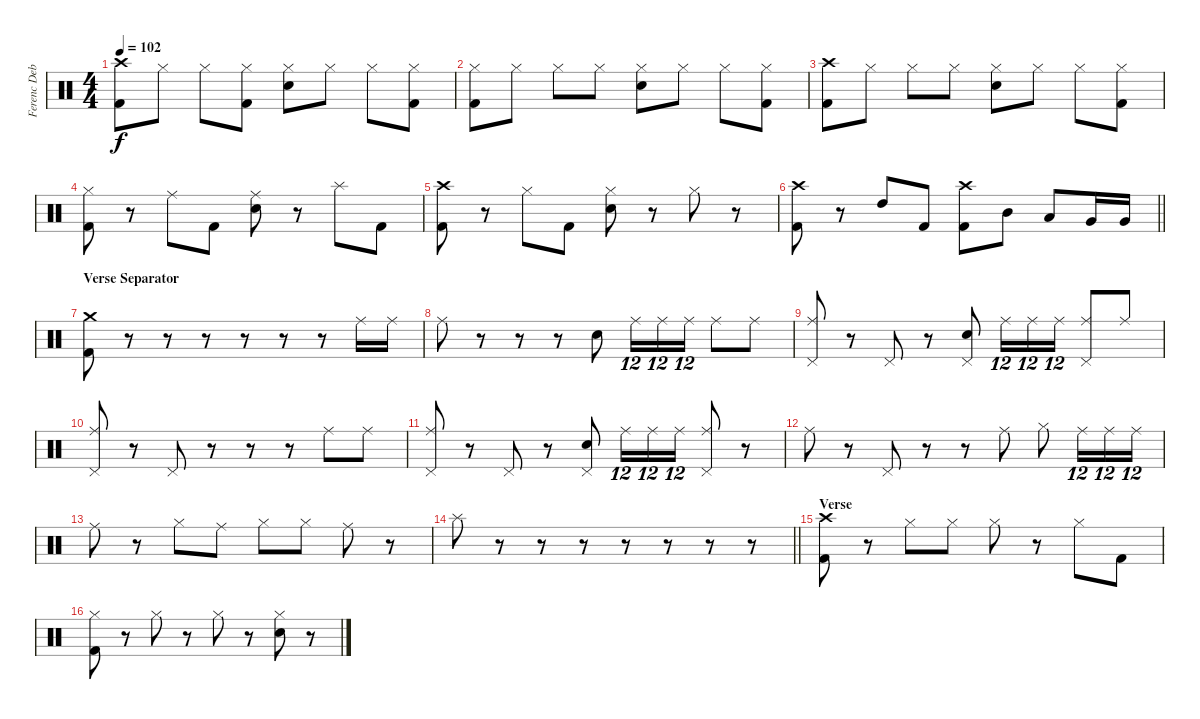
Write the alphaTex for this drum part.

\track ("Ferenc Debreczeni - drums" "Ferenc Deb") {instrument percussion}
\staff {score}
\articulation defaults
\ts (4 4)
\tempo 102
\clef neutral
\ks c
("Crash high (hit)" "Kick (hit) 2").8{dy f} "Hi-Hat (closed)".8 "Hi-Hat (closed)".8 ("Hi-Hat (closed)" "Kick (hit) 2").8 ("Hi-Hat (closed)" "Snare (hit) 2").8 "Hi-Hat (closed)".8 "Hi-Hat (closed)".8 ("Hi-Hat (closed)" "Kick (hit) 2").8 |
("Hi-Hat (closed)" "Kick (hit) 2").8 "Hi-Hat (closed)".8 "Hi-Hat (closed)".8 "Hi-Hat (closed)".8 ("Hi-Hat (closed)" "Snare (hit) 2").8 "Hi-Hat (closed)".8 "Hi-Hat (closed)".8 ("Hi-Hat (closed)" "Kick (hit) 2").8 |
("Kick (hit) 2" "Crash high (hit)").8 "Hi-Hat (closed)".8 "Hi-Hat (closed)".8 "Hi-Hat (closed)".8 ("Hi-Hat (closed)" "Snare (hit) 2").8 "Hi-Hat (closed)".8 "Hi-Hat (closed)".8 ("Hi-Hat (closed)" "Kick (hit) 2").8 |
("Kick (hit) 2" "Hi-Hat (closed)").8 r.8 "Ride (middle)".8 "Kick (hit) 2".8 ("Snare (hit) 2" "Ride (middle)").8 r.8 "Splash (hit)".8 "Kick (hit) 2".8 |
("Kick (hit) 2" "Crash high (hit)").8 r.8 "Hi-Hat (closed)".8 "Kick (hit) 2".8 ("Snare (hit) 2" "Hi-Hat (closed)").8 r.8 "Hi-Hat (closed)".8 r.8 |
\barLineRight lightlight
("Kick (hit) 2" "Crash high (hit)").8 r.8 "High Tom (hit)".8 "Kick (hit) 2".8 ("Kick (hit) 2" "Crash high (hit)").8 "Mid Tom (hit)".8 "Low Tom (hit)".8 "Very Low Tom (hit)".16 "Very Low Tom (hit)".16 |
\section ("" "Verse Separator")
("Crash medium (hit)" "Kick (hit) 2").8 r.8 r.8 r.8 r.8 r.8 r.8 "Ride (middle)".16 "Ride (middle)".16 |
"Ride (middle)".8 r.8 r.8 r.8 "Snare (hit)".8 "Ride (middle)".16{tu (12 8)} "Ride (middle)".16{tu (12 8)} "Ride (middle)".16{tu (12 8)} "Ride (middle)".8 "Ride (middle)".8 |
("Ride (middle)" "Pedal Hi-Hat (hit)").8 r.8 "Pedal Hi-Hat (hit)".8 r.8 ("Snare (hit)" "Pedal Hi-Hat (hit)").8 "Ride (middle)".16{tu (12 8)} "Ride (middle)".16{tu (12 8)} "Ride (middle)".16{tu (12 8)} ("Ride (middle)" "Pedal Hi-Hat (hit)").8 "Ride (middle)".8 |
("Ride (middle)" "Pedal Hi-Hat (hit)").8 r.8 "Pedal Hi-Hat (hit)".8 r.8 r.8 r.8 "Ride (middle)".8 "Ride (middle)".8 |
("Ride (middle)" "Pedal Hi-Hat (hit)").8 r.8 "Pedal Hi-Hat (hit)".8 r.8 ("Snare (hit)" "Pedal Hi-Hat (hit)").8 "Ride (middle)".16{tu (12 8)} "Ride (middle)".16{tu (12 8)} "Ride (middle)".16{tu (12 8)} ("Ride (middle)" "Pedal Hi-Hat (hit)").8 r.8 |
"Ride (middle)".8 r.8 "Pedal Hi-Hat (hit)".8 r.8 r.8 "Ride (middle)".8 "Hi-Hat (closed)".8 "Ride (middle)".16{tu (12 8)} "Ride (middle)".16{tu (12 8)} "Ride (middle)".16{tu (12 8)} |
"Ride (middle)".8 r.8 "Hi-Hat (closed)".8 "Ride (middle)".8 "Hi-Hat (closed)".8 "Hi-Hat (closed)".8 "Ride (middle)".8 r.8 |
\barLineRight lightlight "Splash (hit)".8
r.8 r.8 r.8 r.8 r.8 r.8 r.8 |
\section ("" "Verse")
("Crash high (hit)" "Kick (hit) 2").8 r.8 "Hi-Hat (closed)".8 "Hi-Hat (closed)".8 "Hi-Hat (closed)".8 r.8 "Hi-Hat (closed)".8 "Kick (hit) 2".8 |
("Hi-Hat (closed)" "Kick (hit) 2").8 r.8 "Hi-Hat (closed)".8 r.8 "Hi-Hat (closed)".8 r.8 ("Hi-Hat (closed)" "Snare (hit) 2").8 r.8
